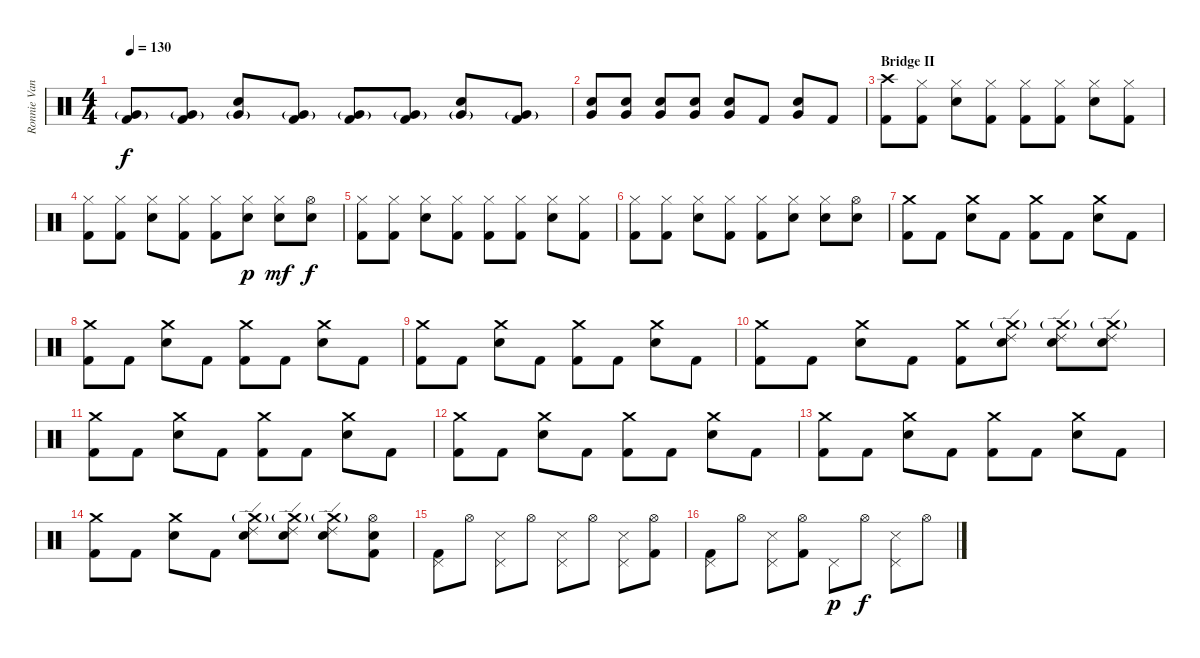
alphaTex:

\track ("Ronnie Vannucci Jr." "Ronnie Van") {instrument percussion}
\staff {score}
\articulation defaults
\ts (4 4)
\tempo 130
\clef neutral
\ks c
("Very Low Tom (hit)"{g} "Kick (hit) 2").8{dy f} ("Very Low Tom (hit)"{g} "Kick (hit) 2").8 ("Very Low Tom (hit)"{g} "Electric Snare (hit)").8 ("Very Low Tom (hit)"{g} "Kick (hit) 2").8 ("Very Low Tom (hit)"{g} "Kick (hit) 2").8 ("Very Low Tom (hit)"{g} "Kick (hit) 2").8 ("Very Low Tom (hit)"{g} "Electric Snare (hit)").8 ("Very Low Tom (hit)"{g} "Kick (hit) 2").8 |
("Very Low Tom (hit)" "Electric Snare (hit)").8 ("Very Low Tom (hit)" "Electric Snare (hit)").8 ("Very Low Tom (hit)" "Electric Snare (hit)").8 ("Very Low Tom (hit)" "Electric Snare (hit)").8 ("Very Low Tom (hit)" "Electric Snare (hit)").8 "Kick (hit) 2".8 ("Very Low Tom (hit)" "Electric Snare (hit)").8 "Kick (hit) 2".8 |
\section ("" "Bridge II")
("Crash high (hit)" "Kick (hit) 2").8 ("Hi-Hat (closed)" "Kick (hit) 2").8 ("Hi-Hat (closed)" "Electric Snare (hit)").8 ("Hi-Hat (closed)" "Kick (hit) 2").8 ("Hi-Hat (closed)" "Kick (hit) 2").8 ("Hi-Hat (closed)" "Kick (hit) 2").8 ("Hi-Hat (closed)" "Electric Snare (hit)").8 ("Hi-Hat (closed)" "Kick (hit) 2").8 |
("Hi-Hat (closed)" "Kick (hit) 2").8 ("Hi-Hat (closed)" "Kick (hit) 2").8 ("Hi-Hat (closed)" "Electric Snare (hit)").8 ("Hi-Hat (closed)" "Kick (hit) 2").8 ("Hi-Hat (closed)" "Kick (hit) 2").8 ("Hi-Hat (closed)" "Electric Snare (hit)").8{dy p} ("Hi-Hat (closed)" "Electric Snare (hit)").8{dy mf} ("Hi-Hat (open)" "Electric Snare (hit)").8{dy f} |
("Hi-Hat (closed)" "Kick (hit) 2").8 ("Hi-Hat (closed)" "Kick (hit) 2").8 ("Hi-Hat (closed)" "Electric Snare (hit)").8 ("Hi-Hat (closed)" "Kick (hit) 2").8 ("Hi-Hat (closed)" "Kick (hit) 2").8 ("Hi-Hat (closed)" "Kick (hit) 2").8 ("Hi-Hat (closed)" "Electric Snare (hit)").8 ("Hi-Hat (closed)" "Kick (hit) 2").8 |
("Hi-Hat (closed)" "Kick (hit) 2").8 ("Hi-Hat (closed)" "Kick (hit) 2").8 ("Hi-Hat (closed)" "Electric Snare (hit)").8 ("Hi-Hat (closed)" "Kick (hit) 2").8 ("Hi-Hat (closed)" "Kick (hit) 2").8 ("Hi-Hat (closed)" "Electric Snare (hit)").8 ("Hi-Hat (closed)" "Electric Snare (hit)").8 ("Hi-Hat (open)" "Electric Snare (hit)").8 |
("Crash medium (hit)" "Kick (hit) 2").8 "Kick (hit) 2".8 ("Crash medium (hit)" "Electric Snare (hit)").8 "Kick (hit) 2".8 ("Crash medium (hit)" "Kick (hit) 2").8 "Kick (hit) 2".8 ("Crash medium (hit)" "Electric Snare (hit)").8 "Kick (hit) 2".8 |
("Crash medium (hit)" "Kick (hit) 2").8 "Kick (hit) 2".8 ("Crash medium (hit)" "Electric Snare (hit)").8 "Kick (hit) 2".8 ("Crash medium (hit)" "Kick (hit) 2").8 "Kick (hit) 2".8 ("Crash medium (hit)" "Electric Snare (hit)").8 "Kick (hit) 2".8 |
("Crash medium (hit)" "Kick (hit) 2").8 "Kick (hit) 2".8 ("Crash medium (hit)" "Electric Snare (hit)").8 "Kick (hit) 2".8 ("Crash medium (hit)" "Kick (hit) 2").8 "Kick (hit) 2".8 ("Crash medium (hit)" "Electric Snare (hit)").8 "Kick (hit) 2".8 |
("Crash medium (hit)" "Kick (hit) 2").8 "Kick (hit) 2".8 ("Crash medium (hit)" "Electric Snare (hit)").8 "Kick (hit) 2".8 ("Crash medium (hit)" "Kick (hit) 2").8 ("Crash medium (hit)"{g} "Ride (edge) 2" "Electric Snare (hit)").8 ("Crash medium (hit)"{g} "Ride (edge) 2" "Electric Snare (hit)").8 ("Crash medium (hit)"{g} "Ride (edge) 2" "Electric Snare (hit)").8 |
("Crash medium (hit)" "Kick (hit) 2").8 "Kick (hit) 2".8 ("Crash medium (hit)" "Electric Snare (hit)").8 "Kick (hit) 2".8 ("Crash medium (hit)" "Kick (hit) 2").8 "Kick (hit) 2".8 ("Crash medium (hit)" "Electric Snare (hit)").8 "Kick (hit) 2".8 |
("Crash medium (hit)" "Kick (hit) 2").8 "Kick (hit) 2".8 ("Crash medium (hit)" "Electric Snare (hit)").8 "Kick (hit) 2".8 ("Crash medium (hit)" "Kick (hit) 2").8 "Kick (hit) 2".8 ("Crash medium (hit)" "Electric Snare (hit)").8 "Kick (hit) 2".8 |
("Crash medium (hit)" "Kick (hit) 2").8 "Kick (hit) 2".8 ("Crash medium (hit)" "Electric Snare (hit)").8 "Kick (hit) 2".8 ("Crash medium (hit)" "Kick (hit) 2").8 "Kick (hit) 2".8 ("Crash medium (hit)" "Electric Snare (hit)").8 "Kick (hit) 2".8 |
("Crash medium (hit)" "Kick (hit) 2").8 "Kick (hit) 2".8 ("Crash medium (hit)" "Electric Snare (hit)").8 "Kick (hit) 2".8 ("Crash medium (hit)"{g} "Ride (edge) 2" "Electric Snare (hit)").8 ("Crash medium (hit)"{g} "Ride (edge) 2" "Electric Snare (hit)").8 ("Crash medium (hit)"{g} "Ride (edge) 2" "Electric Snare (hit)").8 ("Hi-Hat (open)" "Electric Snare (hit)" "Kick (hit) 2").8 |
("Pedal Hi-Hat (hit)" "Kick (hit) 2").8 "Hi-Hat (open)".8 ("Pedal Hi-Hat (hit)" "Snare (side stick) 3").8 "Hi-Hat (open)".8 ("Pedal Hi-Hat (hit)" "Snare (side stick) 3").8 "Hi-Hat (open)".8 ("Pedal Hi-Hat (hit)" "Snare (side stick) 3").8 ("Hi-Hat (open)" "Kick (hit) 2").8 |
("Pedal Hi-Hat (hit)" "Kick (hit) 2").8 "Hi-Hat (open)".8 ("Pedal Hi-Hat (hit)" "Snare (side stick) 3").8 ("Hi-Hat (open)" "Kick (hit) 2").8 "Pedal Hi-Hat (hit)".8{dy p} "Hi-Hat (open)".8{dy f} ("Pedal Hi-Hat (hit)" "Snare (side stick) 3").8 "Hi-Hat (open)".8
